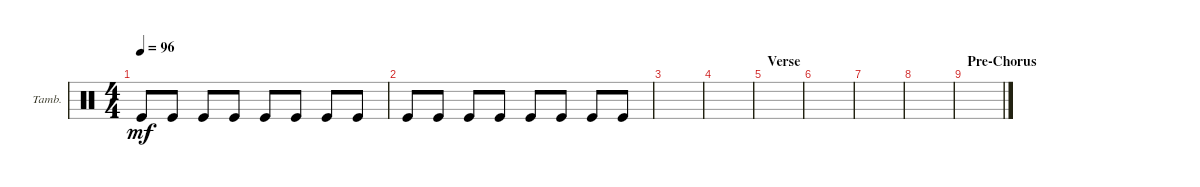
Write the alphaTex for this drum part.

\defaultSystemsLayout 4
\bracketExtendMode groupsimilarinstruments
\firstSystemTrackNameOrientation horizontal
\otherSystemsTrackNameOrientation horizontal
\track ("Tambourine" "Tamb.") {instrument percussion}
\staff {score}
\articulation defaults
\ts (4 4)
\tempo 96
\clef neutral
\ks c "Kick (hit)".8{dy mf} "Kick (hit)".8 "Kick (hit)".8 "Kick (hit)".8 "Kick (hit)".8 "Kick (hit)".8 "Kick (hit)".8 "Kick (hit)".8
|
"Kick (hit)".8 "Kick (hit)".8 "Kick (hit)".8 "Kick (hit)".8 "Kick (hit)".8 "Kick (hit)".8 "Kick (hit)".8 "Kick (hit)".8 |
|
|
\section ("" "Verse")
|
|
|
|
\section ("" "Pre-Chorus")
